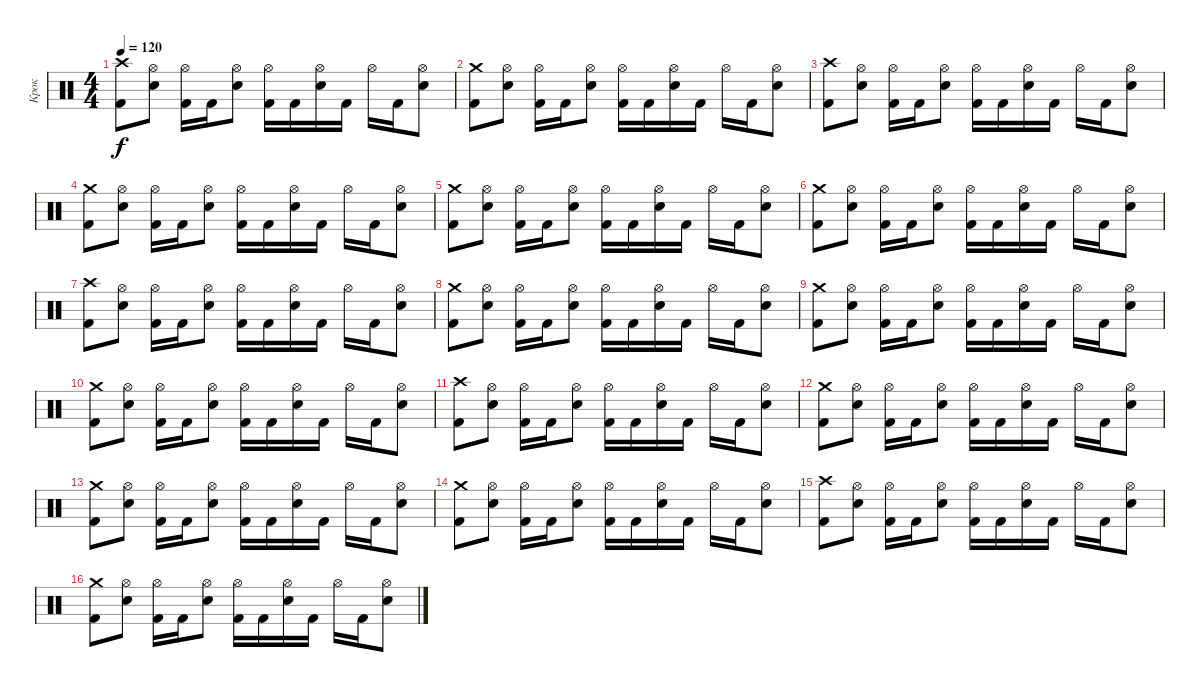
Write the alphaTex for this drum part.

\track ("Крок" "Крок") {instrument percussion}
\staff {score}
\articulation defaults
\ts (4 4)
\tempo 120
\clef neutral
\ks c
("Crash high (hit)" "Kick (hit) 2").8{dy f} ("Hi-Hat (open)" "Electric Snare (hit)").8 ("Hi-Hat (open)" "Kick (hit) 2").16 "Kick (hit) 2".16 ("Hi-Hat (open)" "Electric Snare (hit)").8 ("Hi-Hat (open)" "Kick (hit) 2").16 "Kick (hit) 2".16 ("Hi-Hat (open)" "Electric Snare (hit)").16 "Kick (hit) 2".16 "Hi-Hat (open)".16 "Kick (hit) 2".16 ("Hi-Hat (open)" "Electric Snare (hit)").8 |
("Crash medium (hit)" "Kick (hit) 2").8 ("Hi-Hat (open)" "Electric Snare (hit)").8 ("Hi-Hat (open)" "Kick (hit) 2").16 "Kick (hit) 2".16 ("Hi-Hat (open)" "Electric Snare (hit)").8 ("Hi-Hat (open)" "Kick (hit) 2").16 "Kick (hit) 2".16 ("Hi-Hat (open)" "Electric Snare (hit)").16 "Kick (hit) 2".16 "Hi-Hat (open)".16 "Kick (hit) 2".16 ("Hi-Hat (open)" "Electric Snare (hit)").8 |
("Crash high (hit)" "Kick (hit) 2").8 ("Hi-Hat (open)" "Electric Snare (hit)").8 ("Hi-Hat (open)" "Kick (hit) 2").16 "Kick (hit) 2".16 ("Hi-Hat (open)" "Electric Snare (hit)").8 ("Hi-Hat (open)" "Kick (hit) 2").16 "Kick (hit) 2".16 ("Hi-Hat (open)" "Electric Snare (hit)").16 "Kick (hit) 2".16 "Hi-Hat (open)".16 "Kick (hit) 2".16 ("Hi-Hat (open)" "Electric Snare (hit)").8 |
("Crash medium (hit)" "Kick (hit) 2").8 ("Hi-Hat (open)" "Electric Snare (hit)").8 ("Hi-Hat (open)" "Kick (hit) 2").16 "Kick (hit) 2".16 ("Hi-Hat (open)" "Electric Snare (hit)").8 ("Hi-Hat (open)" "Kick (hit) 2").16 "Kick (hit) 2".16 ("Hi-Hat (open)" "Electric Snare (hit)").16 "Kick (hit) 2".16 "Hi-Hat (open)".16 "Kick (hit) 2".16 ("Hi-Hat (open)" "Electric Snare (hit)").8 |
("Crash medium (hit)" "Kick (hit) 2").8 ("Hi-Hat (open)" "Electric Snare (hit)").8 ("Hi-Hat (open)" "Kick (hit) 2").16 "Kick (hit) 2".16 ("Hi-Hat (open)" "Electric Snare (hit)").8 ("Hi-Hat (open)" "Kick (hit) 2").16 "Kick (hit) 2".16 ("Hi-Hat (open)" "Electric Snare (hit)").16 "Kick (hit) 2".16 "Hi-Hat (open)".16 "Kick (hit) 2".16 ("Hi-Hat (open)" "Electric Snare (hit)").8 |
("Crash medium (hit)" "Kick (hit) 2").8 ("Hi-Hat (open)" "Electric Snare (hit)").8 ("Hi-Hat (open)" "Kick (hit) 2").16 "Kick (hit) 2".16 ("Hi-Hat (open)" "Electric Snare (hit)").8 ("Hi-Hat (open)" "Kick (hit) 2").16 "Kick (hit) 2".16 ("Hi-Hat (open)" "Electric Snare (hit)").16 "Kick (hit) 2".16 "Hi-Hat (open)".16 "Kick (hit) 2".16 ("Hi-Hat (open)" "Electric Snare (hit)").8 |
("Crash high (hit)" "Kick (hit) 2").8 ("Hi-Hat (open)" "Electric Snare (hit)").8 ("Hi-Hat (open)" "Kick (hit) 2").16 "Kick (hit) 2".16 ("Hi-Hat (open)" "Electric Snare (hit)").8 ("Hi-Hat (open)" "Kick (hit) 2").16 "Kick (hit) 2".16 ("Hi-Hat (open)" "Electric Snare (hit)").16 "Kick (hit) 2".16 "Hi-Hat (open)".16 "Kick (hit) 2".16 ("Hi-Hat (open)" "Electric Snare (hit)").8 |
("Crash medium (hit)" "Kick (hit) 2").8 ("Hi-Hat (open)" "Electric Snare (hit)").8 ("Hi-Hat (open)" "Kick (hit) 2").16 "Kick (hit) 2".16 ("Hi-Hat (open)" "Electric Snare (hit)").8 ("Hi-Hat (open)" "Kick (hit) 2").16 "Kick (hit) 2".16 ("Hi-Hat (open)" "Electric Snare (hit)").16 "Kick (hit) 2".16 "Hi-Hat (open)".16 "Kick (hit) 2".16 ("Hi-Hat (open)" "Electric Snare (hit)").8 |
("Crash medium (hit)" "Kick (hit) 2").8 ("Hi-Hat (open)" "Electric Snare (hit)").8 ("Hi-Hat (open)" "Kick (hit) 2").16 "Kick (hit) 2".16 ("Hi-Hat (open)" "Electric Snare (hit)").8 ("Hi-Hat (open)" "Kick (hit) 2").16 "Kick (hit) 2".16 ("Hi-Hat (open)" "Electric Snare (hit)").16 "Kick (hit) 2".16 "Hi-Hat (open)".16 "Kick (hit) 2".16 ("Hi-Hat (open)" "Electric Snare (hit)").8 |
("Crash medium (hit)" "Kick (hit) 2").8 ("Hi-Hat (open)" "Electric Snare (hit)").8 ("Hi-Hat (open)" "Kick (hit) 2").16 "Kick (hit) 2".16 ("Hi-Hat (open)" "Electric Snare (hit)").8 ("Hi-Hat (open)" "Kick (hit) 2").16 "Kick (hit) 2".16 ("Hi-Hat (open)" "Electric Snare (hit)").16 "Kick (hit) 2".16 "Hi-Hat (open)".16 "Kick (hit) 2".16 ("Hi-Hat (open)" "Electric Snare (hit)").8 |
("Crash high (hit)" "Kick (hit) 2").8 ("Hi-Hat (open)" "Electric Snare (hit)").8 ("Hi-Hat (open)" "Kick (hit) 2").16 "Kick (hit) 2".16 ("Hi-Hat (open)" "Electric Snare (hit)").8 ("Hi-Hat (open)" "Kick (hit) 2").16 "Kick (hit) 2".16 ("Hi-Hat (open)" "Electric Snare (hit)").16 "Kick (hit) 2".16 "Hi-Hat (open)".16 "Kick (hit) 2".16 ("Hi-Hat (open)" "Electric Snare (hit)").8 |
("Crash medium (hit)" "Kick (hit) 2").8 ("Hi-Hat (open)" "Electric Snare (hit)").8 ("Hi-Hat (open)" "Kick (hit) 2").16 "Kick (hit) 2".16 ("Hi-Hat (open)" "Electric Snare (hit)").8 ("Hi-Hat (open)" "Kick (hit) 2").16 "Kick (hit) 2".16 ("Hi-Hat (open)" "Electric Snare (hit)").16 "Kick (hit) 2".16 "Hi-Hat (open)".16 "Kick (hit) 2".16 ("Hi-Hat (open)" "Electric Snare (hit)").8 |
("Crash medium (hit)" "Kick (hit) 2").8 ("Hi-Hat (open)" "Electric Snare (hit)").8 ("Hi-Hat (open)" "Kick (hit) 2").16 "Kick (hit) 2".16 ("Hi-Hat (open)" "Electric Snare (hit)").8 ("Hi-Hat (open)" "Kick (hit) 2").16 "Kick (hit) 2".16 ("Hi-Hat (open)" "Electric Snare (hit)").16 "Kick (hit) 2".16 "Hi-Hat (open)".16 "Kick (hit) 2".16 ("Hi-Hat (open)" "Electric Snare (hit)").8 |
("Crash medium (hit)" "Kick (hit) 2").8 ("Hi-Hat (open)" "Electric Snare (hit)").8 ("Hi-Hat (open)" "Kick (hit) 2").16 "Kick (hit) 2".16 ("Hi-Hat (open)" "Electric Snare (hit)").8 ("Hi-Hat (open)" "Kick (hit) 2").16 "Kick (hit) 2".16 ("Hi-Hat (open)" "Electric Snare (hit)").16 "Kick (hit) 2".16 "Hi-Hat (open)".16 "Kick (hit) 2".16 ("Hi-Hat (open)" "Electric Snare (hit)").8 |
("Crash high (hit)" "Kick (hit) 2").8 ("Hi-Hat (open)" "Electric Snare (hit)").8 ("Hi-Hat (open)" "Kick (hit) 2").16 "Kick (hit) 2".16 ("Hi-Hat (open)" "Electric Snare (hit)").8 ("Hi-Hat (open)" "Kick (hit) 2").16 "Kick (hit) 2".16 ("Hi-Hat (open)" "Electric Snare (hit)").16 "Kick (hit) 2".16 "Hi-Hat (open)".16 "Kick (hit) 2".16 ("Hi-Hat (open)" "Electric Snare (hit)").8 |
("Crash medium (hit)" "Kick (hit) 2").8 ("Hi-Hat (open)" "Electric Snare (hit)").8 ("Hi-Hat (open)" "Kick (hit) 2").16 "Kick (hit) 2".16 ("Hi-Hat (open)" "Electric Snare (hit)").8 ("Hi-Hat (open)" "Kick (hit) 2").16 "Kick (hit) 2".16 ("Hi-Hat (open)" "Electric Snare (hit)").16 "Kick (hit) 2".16 "Hi-Hat (open)".16 "Kick (hit) 2".16 ("Hi-Hat (open)" "Electric Snare (hit)").8
